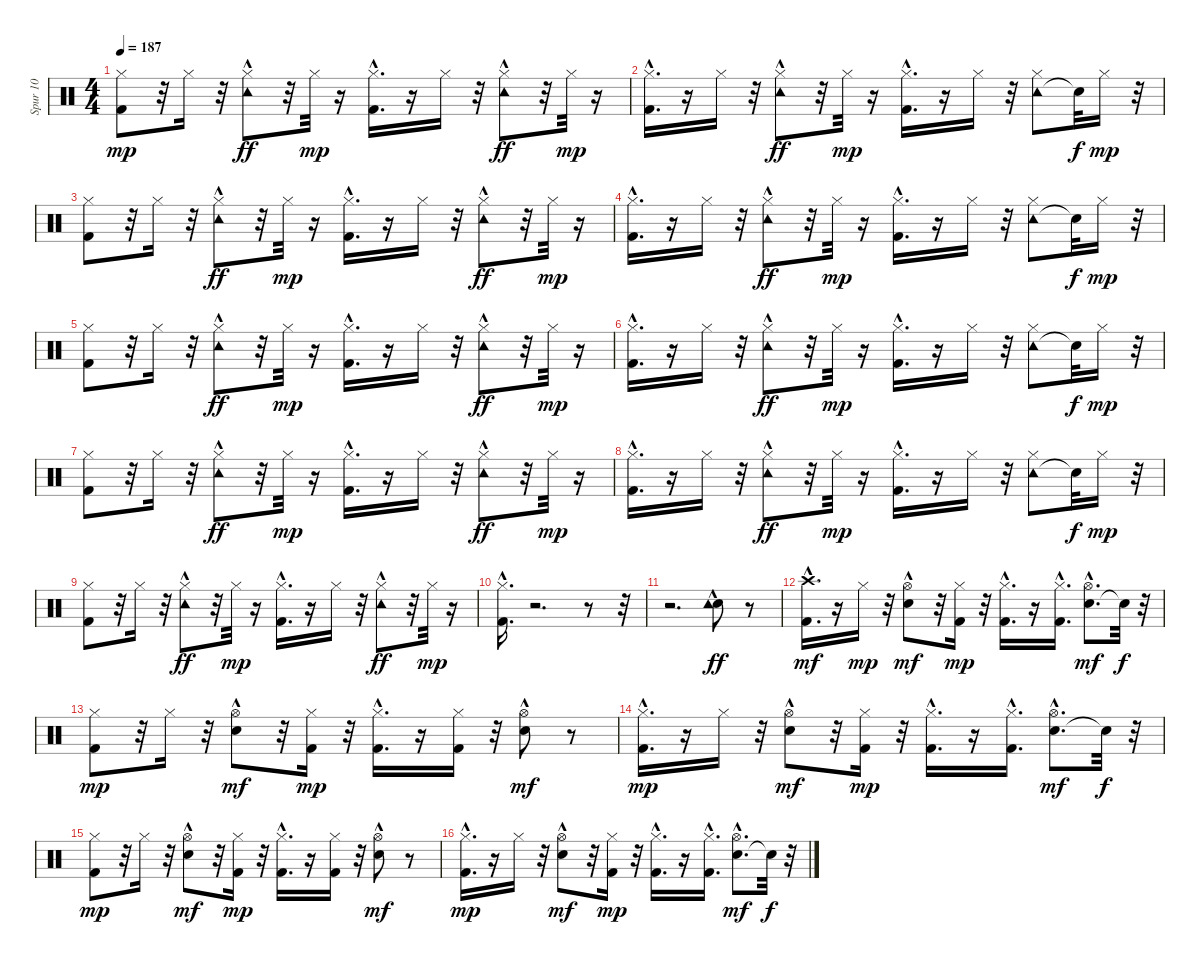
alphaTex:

\track ("Spur 10" "Spur 10") {instrument percussion}
\staff {score}
\articulation defaults
\ts (4 4)
\tempo 187
\clef neutral
\ks c
("Hi-Hat (closed)" "Kick (hit) 2").8{dy mp} r.32 "Hi-Hat (closed)".16 r.32 ("Hi-Hat (closed)" "Tambourine (hit)"{hac}).8{dy ff} r.32 "Hi-Hat (closed)".32{dy mp} r.16 ("Hi-Hat (closed)" "Kick (hit) 2"{hac}).16{d} r.16 "Hi-Hat (closed)".16 r.32 ("Hi-Hat (closed)" "Tambourine (hit)"{hac}).8{dy ff} r.32 "Hi-Hat (closed)".32{dy mp} r.16 |
("Kick (hit) 2"{hac} "Hi-Hat (closed)").16{d} r.16 "Hi-Hat (closed)".16 r.32 ("Hi-Hat (closed)" "Tambourine (hit)"{hac}).8{dy ff} r.32 "Hi-Hat (closed)".32{dy mp} r.16 ("Kick (hit) 2"{hac} "Hi-Hat (closed)").16{d} r.16 "Hi-Hat (closed)".16 r.32 ("Tambourine (hit)" "Hi-Hat (closed)").8 "Snare (hit)"{t}.32{dy f} "Hi-Hat (closed)".16{dy mp} r.32 |
("Hi-Hat (closed)" "Kick (hit) 2").8 r.32 "Hi-Hat (closed)".16 r.32 ("Hi-Hat (closed)" "Tambourine (hit)"{hac}).8{dy ff} r.32 "Hi-Hat (closed)".32{dy mp} r.16 ("Hi-Hat (closed)" "Kick (hit) 2"{hac}).16{d} r.16 "Hi-Hat (closed)".16 r.32 ("Hi-Hat (closed)" "Tambourine (hit)"{hac}).8{dy ff} r.32 "Hi-Hat (closed)".32{dy mp} r.16 |
("Kick (hit) 2"{hac} "Hi-Hat (closed)").16{d} r.16 "Hi-Hat (closed)".16 r.32 ("Hi-Hat (closed)" "Tambourine (hit)"{hac}).8{dy ff} r.32 "Hi-Hat (closed)".32{dy mp} r.16 ("Kick (hit) 2"{hac} "Hi-Hat (closed)").16{d} r.16 "Hi-Hat (closed)".16 r.32 ("Tambourine (hit)" "Hi-Hat (closed)").8 "Snare (hit)"{t}.32{dy f} "Hi-Hat (closed)".16{dy mp} r.32 |
("Hi-Hat (closed)" "Kick (hit) 2").8 r.32 "Hi-Hat (closed)".16 r.32 ("Hi-Hat (closed)" "Tambourine (hit)"{hac}).8{dy ff} r.32 "Hi-Hat (closed)".32{dy mp} r.16 ("Hi-Hat (closed)" "Kick (hit) 2"{hac}).16{d} r.16 "Hi-Hat (closed)".16 r.32 ("Hi-Hat (closed)" "Tambourine (hit)"{hac}).8{dy ff} r.32 "Hi-Hat (closed)".32{dy mp} r.16 |
("Kick (hit) 2"{hac} "Hi-Hat (closed)").16{d} r.16 "Hi-Hat (closed)".16 r.32 ("Hi-Hat (closed)" "Tambourine (hit)"{hac}).8{dy ff} r.32 "Hi-Hat (closed)".32{dy mp} r.16 ("Kick (hit) 2"{hac} "Hi-Hat (closed)").16{d} r.16 "Hi-Hat (closed)".16 r.32 ("Tambourine (hit)" "Hi-Hat (closed)").8 "Snare (hit)"{t}.32{dy f} "Hi-Hat (closed)".16{dy mp} r.32 |
("Hi-Hat (closed)" "Kick (hit) 2").8 r.32 "Hi-Hat (closed)".16 r.32 ("Hi-Hat (closed)" "Tambourine (hit)"{hac}).8{dy ff} r.32 "Hi-Hat (closed)".32{dy mp} r.16 ("Hi-Hat (closed)" "Kick (hit) 2"{hac}).16{d} r.16 "Hi-Hat (closed)".16 r.32 ("Hi-Hat (closed)" "Tambourine (hit)"{hac}).8{dy ff} r.32 "Hi-Hat (closed)".32{dy mp} r.16 |
("Kick (hit) 2"{hac} "Hi-Hat (closed)").16{d} r.16 "Hi-Hat (closed)".16 r.32 ("Hi-Hat (closed)" "Tambourine (hit)"{hac}).8{dy ff} r.32 "Hi-Hat (closed)".32{dy mp} r.16 ("Kick (hit) 2"{hac} "Hi-Hat (closed)").16{d} r.16 "Hi-Hat (closed)".16 r.32 ("Tambourine (hit)" "Hi-Hat (closed)").8 "Snare (hit)"{t}.32{dy f} "Hi-Hat (closed)".16{dy mp} r.32 |
("Hi-Hat (closed)" "Kick (hit) 2").8 r.32 "Hi-Hat (closed)".16 r.32 ("Hi-Hat (closed)" "Tambourine (hit)"{hac}).8{dy ff} r.32 "Hi-Hat (closed)".32{dy mp} r.16 ("Hi-Hat (closed)" "Kick (hit) 2"{hac}).16{d} r.16 "Hi-Hat (closed)".16 r.32 ("Hi-Hat (closed)" "Tambourine (hit)"{hac}).8{dy ff} r.32 "Hi-Hat (closed)".32{dy mp} r.16 |
("Kick (hit) 2"{hac} "Hi-Hat (closed)").16{d} r.2{d} r.8 r.32 |
r.2{d} ("Electric Snare (hit)" "Tambourine (hit)"{hac}).8{dy ff} r.8 |
("Kick (hit) 2"{hac} "Crash high (hit)").16{d dy mf} r.16 "Hi-Hat (closed)".16{dy mp} r.32 ("Electric Snare (hit)"{hac} "Hi-Hat (open)").8{dy mf} r.32 ("Kick (hit) 2" "Hi-Hat (closed)").16{dy mp} r.32 ("Kick (hit) 2"{hac} "Hi-Hat (closed)").16{d} r.16 ("Kick (hit) 2"{hac} "Hi-Hat (closed)").16{d} ("Electric Snare (hit)" "Hi-Hat (open)"{hac}).8{d dy mf} "Snare (hit)"{t}.32{dy f} r.32 |
("Kick (hit) 2" "Hi-Hat (closed)").8{dy mp} r.32 "Hi-Hat (closed)".16 r.32 ("Electric Snare (hit)"{hac} "Hi-Hat (open)").8{dy mf} r.32 ("Kick (hit) 2" "Hi-Hat (closed)").16{dy mp} r.32 ("Kick (hit) 2"{hac} "Hi-Hat (closed)").16{d} r.16 ("Kick (hit) 2" "Hi-Hat (closed)").16 r.32 ("Electric Snare (hit)"{hac} "Hi-Hat (open)").8{dy mf} r.8 |
("Kick (hit) 2"{hac} "Hi-Hat (closed)").16{d dy mp} r.16 "Hi-Hat (closed)".16 r.32 ("Electric Snare (hit)"{hac} "Hi-Hat (open)").8{dy mf} r.32 ("Kick (hit) 2" "Hi-Hat (closed)").16{dy mp} r.32 ("Kick (hit) 2"{hac} "Hi-Hat (closed)").16{d} r.16 ("Kick (hit) 2"{hac} "Hi-Hat (closed)").16{d} ("Electric Snare (hit)" "Hi-Hat (open)"{hac}).8{d dy mf} "Snare (hit)"{t}.32{dy f} r.32 |
("Kick (hit) 2" "Hi-Hat (closed)").8{dy mp} r.32 "Hi-Hat (closed)".16 r.32 ("Electric Snare (hit)"{hac} "Hi-Hat (open)").8{dy mf} r.32 ("Kick (hit) 2" "Hi-Hat (closed)").16{dy mp} r.32 ("Kick (hit) 2"{hac} "Hi-Hat (closed)").16{d} r.16 ("Kick (hit) 2" "Hi-Hat (closed)").16 r.32 ("Electric Snare (hit)"{hac} "Hi-Hat (open)").8{dy mf} r.8 |
("Kick (hit) 2"{hac} "Hi-Hat (closed)").16{d dy mp} r.16 "Hi-Hat (closed)".16 r.32 ("Electric Snare (hit)"{hac} "Hi-Hat (open)").8{dy mf} r.32 ("Kick (hit) 2" "Hi-Hat (closed)").16{dy mp} r.32 ("Kick (hit) 2"{hac} "Hi-Hat (closed)").16{d} r.16 ("Kick (hit) 2"{hac} "Hi-Hat (closed)").16{d} ("Electric Snare (hit)" "Hi-Hat (open)"{hac}).8{d dy mf} "Snare (hit)"{t}.32{dy f} r.32
